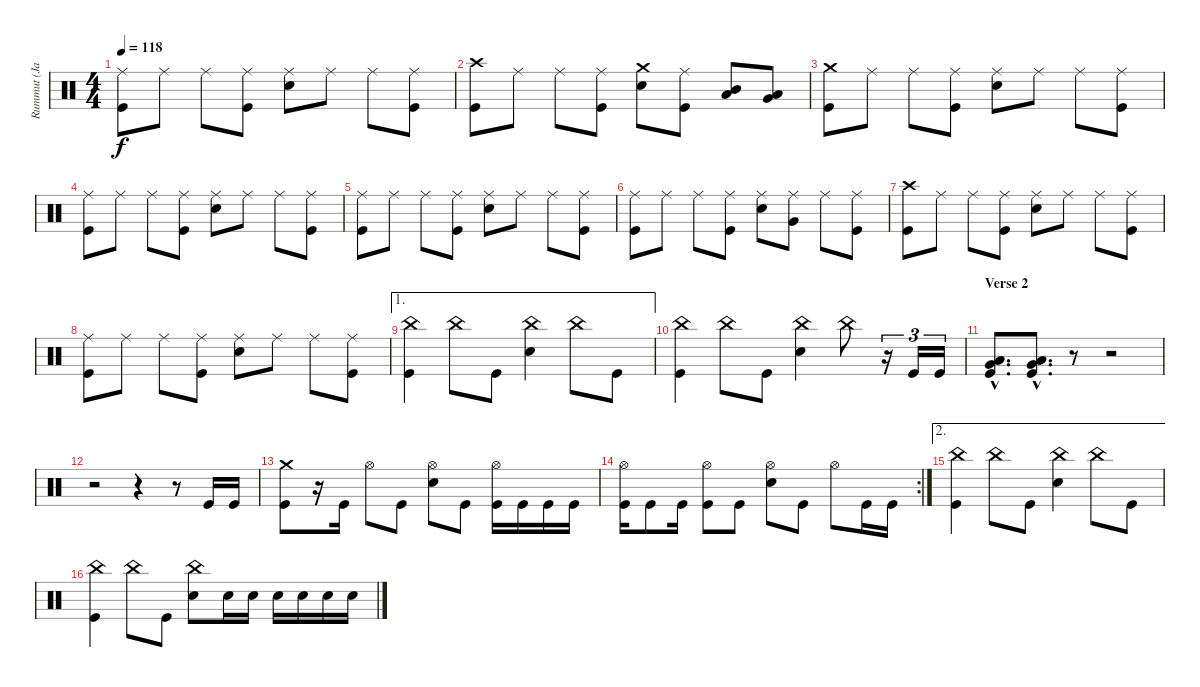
\track ("Rummut (Janne)" "Rummut (Ja") {instrument percussion}
\staff {score}
\articulation defaults
\ts (4 4)
\tempo 118
\clef neutral
\ks c
("Ride (middle)" "Kick (hit)").8{dy f} "Ride (middle)".8 "Ride (middle)".8 ("Ride (middle)" "Kick (hit)").8 ("Ride (middle)" "Snare (hit) 2").8 "Ride (middle)".8 "Ride (middle)".8 ("Ride (middle)" "Kick (hit)").8 |
("Crash high (hit)" "Kick (hit)").8 "Ride (middle)".8 "Ride (middle)".8 ("Ride (middle)" "Kick (hit)").8 ("Crash medium (hit)" "Snare (hit) 2").8 ("Ride (middle)" "Kick (hit)").8 ("Mid Tom (hit)" "Low Tom (hit)").8 ("Low Tom (hit)" "Very Low Tom (hit)").8 |
("Crash medium (hit)" "Kick (hit)").8 "Ride (middle)".8 "Ride (middle)".8 ("Ride (middle)" "Kick (hit)").8 ("Ride (middle)" "Snare (hit) 2").8 "Ride (middle)".8 "Ride (middle)".8 ("Ride (middle)" "Kick (hit)").8 |
("Ride (middle)" "Kick (hit)").8 "Ride (middle)".8 "Ride (middle)".8 ("Ride (middle)" "Kick (hit)").8 ("Ride (middle)" "Snare (hit) 2").8 "Ride (middle)".8 "Ride (middle)".8 ("Ride (middle)" "Kick (hit)").8 |
("Ride (middle)" "Kick (hit)").8 "Ride (middle)".8 "Ride (middle)".8 ("Ride (middle)" "Kick (hit)").8 ("Ride (middle)" "Snare (hit) 2").8 "Ride (middle)".8 "Ride (middle)".8 ("Ride (middle)" "Kick (hit)").8 |
("Ride (middle)" "Kick (hit)").8 "Ride (middle)".8 "Ride (middle)".8 ("Ride (middle)" "Kick (hit)").8 ("Ride (middle)" "Snare (hit) 2").8 ("Ride (middle)" "Very Low Tom (hit)").8 "Ride (middle)".8 ("Ride (middle)" "Kick (hit)").8 |
("Crash high (hit)" "Kick (hit)").8 "Ride (middle)".8 "Ride (middle)".8 ("Ride (middle)" "Kick (hit)").8 ("Ride (middle)" "Snare (hit) 2").8 "Ride (middle)".8 "Ride (middle)".8 ("Ride (middle)" "Kick (hit)").8 |
("Ride (middle)" "Kick (hit)").8 "Ride (middle)".8 "Ride (middle)".8 ("Ride (middle)" "Kick (hit)").8 ("Ride (middle)" "Snare (hit) 2").8 "Ride (middle)".8 "Ride (middle)".8 ("Ride (middle)" "Kick (hit)").8 |
\ae 1
("China (hit)" "Kick (hit)").4 "China (hit)".8 "Kick (hit)".8 ("China (hit)" "Snare (hit) 2").4 "China (hit)".8 "Kick (hit)".8 |
("China (hit)" "Kick (hit)").4 "China (hit)".8 "Kick (hit)".8 ("China (hit)" "Snare (hit) 2").4 "China (hit)".8 r.16{tu (3 2)} "Kick (hit)".16{tu (3 2)} "Kick (hit)".16{tu (3 2)} |
\section ("" "Verse 2")
("Low Tom (hit)"{hac} "Very Low Tom (hit)"{hac} "Kick (hit)"{hac}).8{d} ("Low Tom (hit)"{hac} "Very Low Tom (hit)"{hac} "Kick (hit)"{hac}).8{d} r.8 r.2 |
r.2 r.4 r.8 "Kick (hit)".16 "Kick (hit)".16 |
("Crash medium (hit)" "Kick (hit)").8 r.16 "Kick (hit)".16 "Hi-Hat (open)".8 "Kick (hit)".8 ("Hi-Hat (open)" "Snare (hit) 2").8 "Kick (hit)".8 ("Hi-Hat (open)" "Kick (hit)").16 "Kick (hit)".16 "Kick (hit)".16 "Kick (hit)".16 |
\rc 2
("Hi-Hat (open)" "Kick (hit)").16 "Kick (hit)".8 "Kick (hit)".16 ("Hi-Hat (open)" "Kick (hit)").8 "Kick (hit)".8 ("Hi-Hat (open)" "Snare (hit) 2").8 "Kick (hit)".8 "Hi-Hat (open)".8 "Kick (hit)".16 "Kick (hit)".16 |
\ae 2
("China (hit)" "Kick (hit)").4 "China (hit)".8 "Kick (hit)".8 ("China (hit)" "Snare (hit) 2").4 "China (hit)".8 "Kick (hit)".8 |
("China (hit)" "Kick (hit)").4 "China (hit)".8 "Kick (hit)".8 ("China (hit)" "Snare (hit) 2").8 "Snare (hit) 2".16 "Snare (hit) 2".16 "Snare (hit) 2".16 "Snare (hit) 2".16 "Snare (hit) 2".16 "Snare (hit) 2".16
